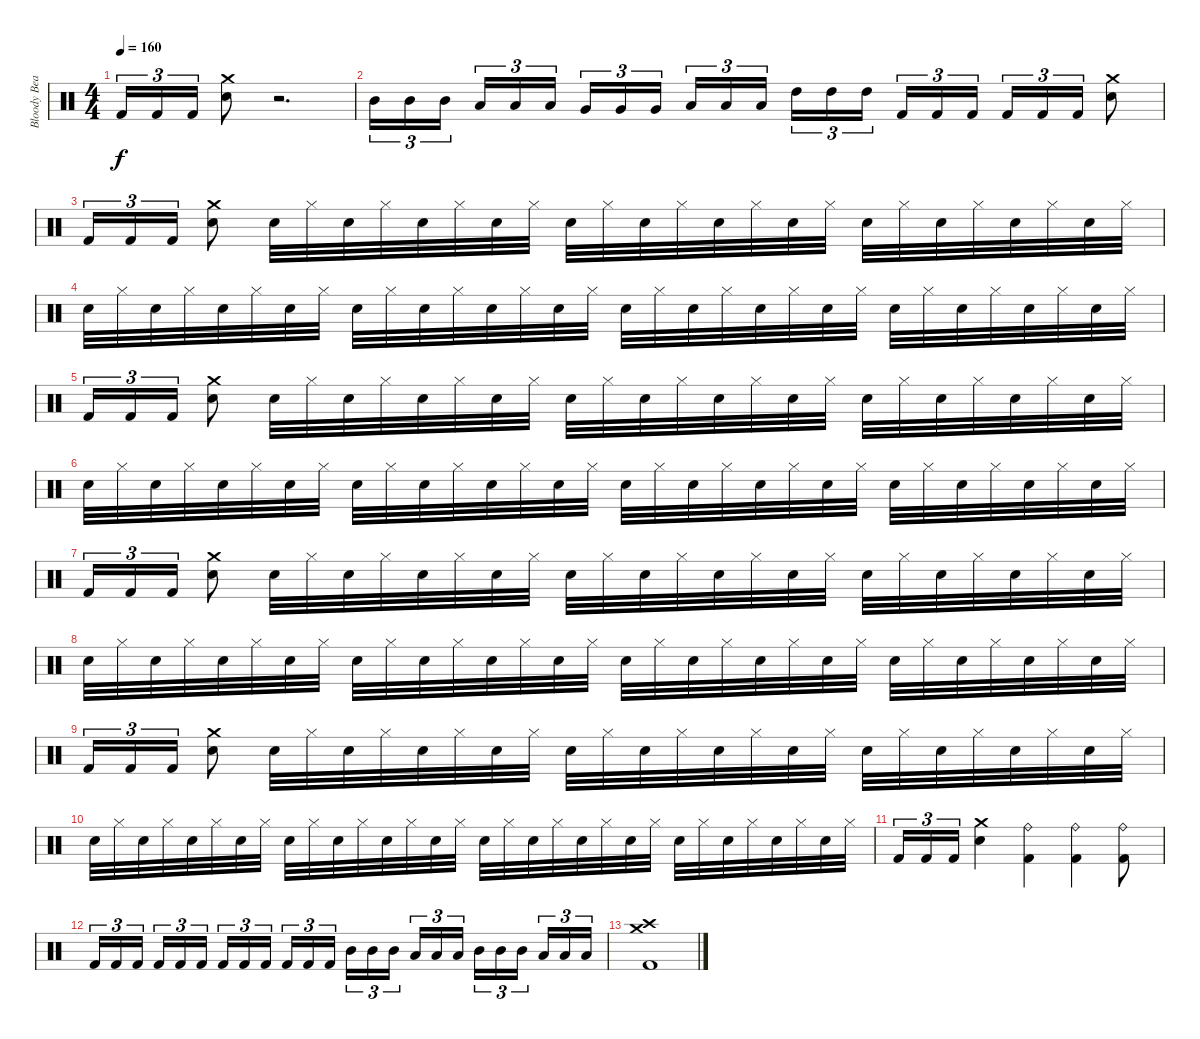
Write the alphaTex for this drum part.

\track ("Bloody Beater" "Bloody Bea") {instrument percussion}
\staff {score}
\articulation defaults
\ts (4 4)
\tempo 160
\clef neutral
\ks c "Kick (hit) 2".16{tu (3 2) dy f} "Kick (hit) 2".16{tu (3 2)} "Kick (hit) 2".16{tu (3 2)}
("Crash medium (hit)" "Snare (hit) 2").8 r.2{d} |
"Mid Tom (hit)".16{tu (3 2)} "Mid Tom (hit)".16{tu (3 2)} "Mid Tom (hit)".16{tu (3 2)} "Low Tom (hit)".16{tu (3 2)} "Low Tom (hit)".16{tu (3 2)} "Low Tom (hit)".16{tu (3 2)} "Very Low Tom (hit)".16{tu (3 2)} "Very Low Tom (hit)".16{tu (3 2)} "Very Low Tom (hit)".16{tu (3 2)} "Low Tom (hit)".16{tu (3 2)} "Low Tom (hit)".16{tu (3 2)} "Low Tom (hit)".16{tu (3 2)} "High Tom (hit)".16{tu (3 2)} "High Tom (hit)".16{tu (3 2)} "High Tom (hit)".16{tu (3 2)} "Kick (hit) 2".16{tu (3 2)} "Kick (hit) 2".16{tu (3 2)} "Kick (hit) 2".16{tu (3 2)} "Kick (hit) 2".16{tu (3 2)} "Kick (hit) 2".16{tu (3 2)} "Kick (hit) 2".16{tu (3 2)} ("Crash medium (hit)" "Snare (hit) 2").8 |
"Kick (hit) 2".16{tu (3 2)} "Kick (hit) 2".16{tu (3 2)} "Kick (hit) 2".16{tu (3 2)} ("Crash medium (hit)" "Snare (hit) 2").8 "Snare (hit) 2".32 "Hi-Hat (closed)".32 "Snare (hit) 2".32 "Hi-Hat (closed)".32 "Snare (hit) 2".32 "Hi-Hat (closed)".32 "Snare (hit) 2".32 "Hi-Hat (closed)".32 "Snare (hit) 2".32 "Hi-Hat (closed)".32 "Snare (hit) 2".32 "Hi-Hat (closed)".32 "Snare (hit) 2".32 "Hi-Hat (closed)".32 "Snare (hit) 2".32 "Hi-Hat (closed)".32 "Snare (hit) 2".32 "Hi-Hat (closed)".32 "Snare (hit) 2".32 "Hi-Hat (closed)".32 "Snare (hit) 2".32 "Hi-Hat (closed)".32 "Snare (hit) 2".32 "Hi-Hat (closed)".32 |
"Snare (hit) 2".32 "Hi-Hat (closed)".32 "Snare (hit) 2".32 "Hi-Hat (closed)".32 "Snare (hit) 2".32 "Hi-Hat (closed)".32 "Snare (hit) 2".32 "Hi-Hat (closed)".32 "Snare (hit) 2".32 "Hi-Hat (closed)".32 "Snare (hit) 2".32 "Hi-Hat (closed)".32 "Snare (hit) 2".32 "Hi-Hat (closed)".32 "Snare (hit) 2".32 "Hi-Hat (closed)".32 "Snare (hit) 2".32 "Hi-Hat (closed)".32 "Snare (hit) 2".32 "Hi-Hat (closed)".32 "Snare (hit) 2".32 "Hi-Hat (closed)".32 "Snare (hit) 2".32 "Hi-Hat (closed)".32 "Snare (hit) 2".32 "Hi-Hat (closed)".32 "Snare (hit) 2".32 "Hi-Hat (closed)".32 "Snare (hit) 2".32 "Hi-Hat (closed)".32 "Snare (hit) 2".32 "Hi-Hat (closed)".32 |
"Kick (hit) 2".16{tu (3 2)} "Kick (hit) 2".16{tu (3 2)} "Kick (hit) 2".16{tu (3 2)} ("Crash medium (hit)" "Snare (hit) 2").8 "Snare (hit) 2".32 "Hi-Hat (closed)".32 "Snare (hit) 2".32 "Hi-Hat (closed)".32 "Snare (hit) 2".32 "Hi-Hat (closed)".32 "Snare (hit) 2".32 "Hi-Hat (closed)".32 "Snare (hit) 2".32 "Hi-Hat (closed)".32 "Snare (hit) 2".32 "Hi-Hat (closed)".32 "Snare (hit) 2".32 "Hi-Hat (closed)".32 "Snare (hit) 2".32 "Hi-Hat (closed)".32 "Snare (hit) 2".32 "Hi-Hat (closed)".32 "Snare (hit) 2".32 "Hi-Hat (closed)".32 "Snare (hit) 2".32 "Hi-Hat (closed)".32 "Snare (hit) 2".32 "Hi-Hat (closed)".32 |
"Snare (hit) 2".32 "Hi-Hat (closed)".32 "Snare (hit) 2".32 "Hi-Hat (closed)".32 "Snare (hit) 2".32 "Hi-Hat (closed)".32 "Snare (hit) 2".32 "Hi-Hat (closed)".32 "Snare (hit) 2".32 "Hi-Hat (closed)".32 "Snare (hit) 2".32 "Hi-Hat (closed)".32 "Snare (hit) 2".32 "Hi-Hat (closed)".32 "Snare (hit) 2".32 "Hi-Hat (closed)".32 "Snare (hit) 2".32 "Hi-Hat (closed)".32 "Snare (hit) 2".32 "Hi-Hat (closed)".32 "Snare (hit) 2".32 "Hi-Hat (closed)".32 "Snare (hit) 2".32 "Hi-Hat (closed)".32 "Snare (hit) 2".32 "Hi-Hat (closed)".32 "Snare (hit) 2".32 "Hi-Hat (closed)".32 "Snare (hit) 2".32 "Hi-Hat (closed)".32 "Snare (hit) 2".32 "Hi-Hat (closed)".32 |
"Kick (hit) 2".16{tu (3 2)} "Kick (hit) 2".16{tu (3 2)} "Kick (hit) 2".16{tu (3 2)} ("Crash medium (hit)" "Snare (hit) 2").8 "Snare (hit) 2".32 "Hi-Hat (closed)".32 "Snare (hit) 2".32 "Hi-Hat (closed)".32 "Snare (hit) 2".32 "Hi-Hat (closed)".32 "Snare (hit) 2".32 "Hi-Hat (closed)".32 "Snare (hit) 2".32 "Hi-Hat (closed)".32 "Snare (hit) 2".32 "Hi-Hat (closed)".32 "Snare (hit) 2".32 "Hi-Hat (closed)".32 "Snare (hit) 2".32 "Hi-Hat (closed)".32 "Snare (hit) 2".32 "Hi-Hat (closed)".32 "Snare (hit) 2".32 "Hi-Hat (closed)".32 "Snare (hit) 2".32 "Hi-Hat (closed)".32 "Snare (hit) 2".32 "Hi-Hat (closed)".32 |
"Snare (hit) 2".32 "Hi-Hat (closed)".32 "Snare (hit) 2".32 "Hi-Hat (closed)".32 "Snare (hit) 2".32 "Hi-Hat (closed)".32 "Snare (hit) 2".32 "Hi-Hat (closed)".32 "Snare (hit) 2".32 "Hi-Hat (closed)".32 "Snare (hit) 2".32 "Hi-Hat (closed)".32 "Snare (hit) 2".32 "Hi-Hat (closed)".32 "Snare (hit) 2".32 "Hi-Hat (closed)".32 "Snare (hit) 2".32 "Hi-Hat (closed)".32 "Snare (hit) 2".32 "Hi-Hat (closed)".32 "Snare (hit) 2".32 "Hi-Hat (closed)".32 "Snare (hit) 2".32 "Hi-Hat (closed)".32 "Snare (hit) 2".32 "Hi-Hat (closed)".32 "Snare (hit) 2".32 "Hi-Hat (closed)".32 "Snare (hit) 2".32 "Hi-Hat (closed)".32 "Snare (hit) 2".32 "Hi-Hat (closed)".32 |
"Kick (hit) 2".16{tu (3 2)} "Kick (hit) 2".16{tu (3 2)} "Kick (hit) 2".16{tu (3 2)} ("Crash medium (hit)" "Snare (hit) 2").8 "Snare (hit) 2".32 "Hi-Hat (closed)".32 "Snare (hit) 2".32 "Hi-Hat (closed)".32 "Snare (hit) 2".32 "Hi-Hat (closed)".32 "Snare (hit) 2".32 "Hi-Hat (closed)".32 "Snare (hit) 2".32 "Hi-Hat (closed)".32 "Snare (hit) 2".32 "Hi-Hat (closed)".32 "Snare (hit) 2".32 "Hi-Hat (closed)".32 "Snare (hit) 2".32 "Hi-Hat (closed)".32 "Snare (hit) 2".32 "Hi-Hat (closed)".32 "Snare (hit) 2".32 "Hi-Hat (closed)".32 "Snare (hit) 2".32 "Hi-Hat (closed)".32 "Snare (hit) 2".32 "Hi-Hat (closed)".32 |
"Snare (hit) 2".32 "Hi-Hat (closed)".32 "Snare (hit) 2".32 "Hi-Hat (closed)".32 "Snare (hit) 2".32 "Hi-Hat (closed)".32 "Snare (hit) 2".32 "Hi-Hat (closed)".32 "Snare (hit) 2".32 "Hi-Hat (closed)".32 "Snare (hit) 2".32 "Hi-Hat (closed)".32 "Snare (hit) 2".32 "Hi-Hat (closed)".32 "Snare (hit) 2".32 "Hi-Hat (closed)".32 "Snare (hit) 2".32 "Hi-Hat (closed)".32 "Snare (hit) 2".32 "Hi-Hat (closed)".32 "Snare (hit) 2".32 "Hi-Hat (closed)".32 "Snare (hit) 2".32 "Hi-Hat (closed)".32 "Snare (hit) 2".32 "Hi-Hat (closed)".32 "Snare (hit) 2".32 "Hi-Hat (closed)".32 "Snare (hit) 2".32 "Hi-Hat (closed)".32 "Snare (hit) 2".32 "Hi-Hat (closed)".32 |
"Kick (hit) 2".16{tu (3 2)} "Kick (hit) 2".16{tu (3 2)} "Kick (hit) 2".16{tu (3 2)} ("Crash medium (hit)" "Snare (hit) 2").4 ("Ride (bell)" "Kick (hit) 2").4 ("Ride (bell)" "Kick (hit) 2").4 ("Ride (bell)" "Kick (hit) 2").8 |
"Kick (hit) 2".16{tu (3 2)} "Kick (hit) 2".16{tu (3 2)} "Kick (hit) 2".16{tu (3 2)} "Kick (hit) 2".16{tu (3 2)} "Kick (hit) 2".16{tu (3 2)} "Kick (hit) 2".16{tu (3 2)} "Kick (hit) 2".16{tu (3 2)} "Kick (hit) 2".16{tu (3 2)} "Kick (hit) 2".16{tu (3 2)} "Kick (hit) 2".16{tu (3 2)} "Kick (hit) 2".16{tu (3 2)} "Kick (hit) 2".16{tu (3 2)} "Mid Tom (hit)".16{tu (3 2)} "Mid Tom (hit)".16{tu (3 2)} "Mid Tom (hit)".16{tu (3 2)} "Low Tom (hit)".16{tu (3 2)} "Low Tom (hit)".16{tu (3 2)} "Low Tom (hit)".16{tu (3 2)} "Mid Tom (hit)".16{tu (3 2)} "Mid Tom (hit)".16{tu (3 2)} "Mid Tom (hit)".16{tu (3 2)} "Low Tom (hit)".16{tu (3 2)} "Low Tom (hit)".16{tu (3 2)} "Low Tom (hit)".16{tu (3 2)} |
("Crash high (hit)" "Crash medium (hit)" "Kick (hit) 2").1
